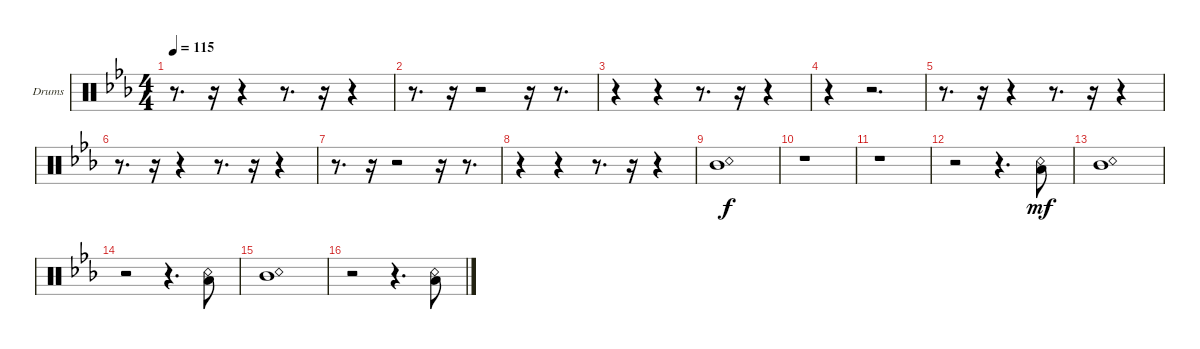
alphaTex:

\bracketExtendMode groupsimilarinstruments
\firstSystemTrackNameOrientation horizontal
\otherSystemsTrackNameOrientation horizontal
\track ("Drums" "Drums") {solo instrument percussion}
\staff {score}
\articulation defaults
\ts (4 4)
\tempo 115
\clef neutral
\ks eb
r.8{d dy f} r.16 r.4 r.8{d} r.16 r.4 |
r.8{d} r.16 r.2 r.16 r.8{d} |
r.4 r.4 r.8{d} r.16 r.4 |
r.4 r.2{d} |
r.8{d} r.16 r.4 r.8{d} r.16 r.4 |
r.8{d} r.16 r.4 r.8{d} r.16 r.4 |
r.8{d} r.16 r.2 r.16 r.8{d} |
r.4 r.4 r.8{d} r.16 r.4 |
("Snare (rim shot)" "Mid Tom (hit)").1 |
r.1 |
r.1 |
r.2 r.4{d} ("Snare (rim shot)" "Low Tom (hit)").8{dy mf} |
("Mid Tom (hit)" "Snare (rim shot)").1 |
r.2 r.4{d} ("Snare (rim shot)" "Low Tom (hit)").8 |
("Mid Tom (hit)" "Snare (rim shot)").1 |
r.2 r.4{d} ("Snare (rim shot)" "Low Tom (hit)").8
